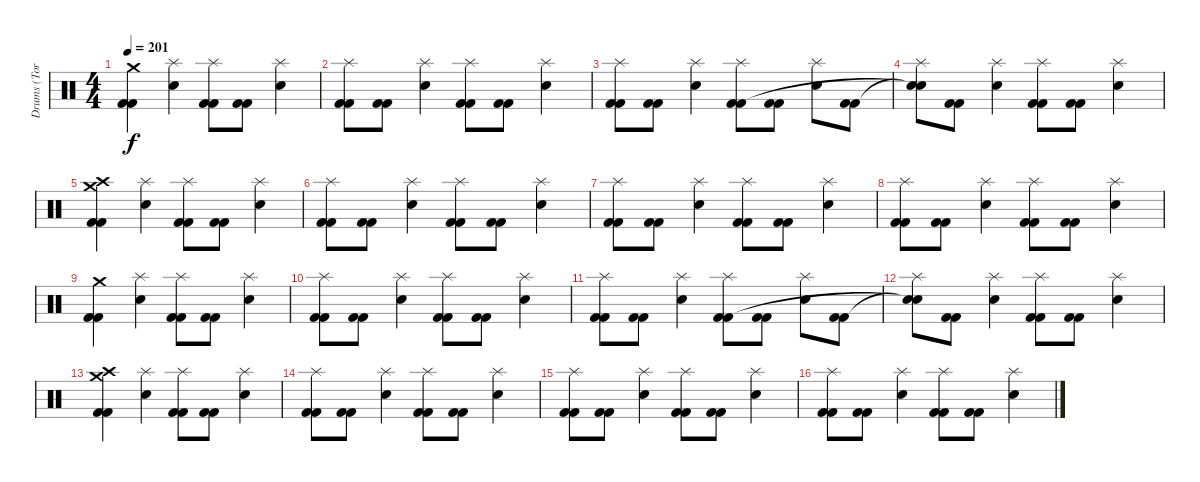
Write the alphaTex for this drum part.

\track ("Drums (Tora)" "Drums (Tor") {instrument percussion}
\staff {score}
\articulation defaults
\ts (4 4)
\tempo 201
\clef neutral
\ks c
("Crash medium (hit)" "Kick (hit) 2" "Kick (hit) 2").4{dy f} ("Splash (hit)" "Snare (hit) 2").4 ("Splash (hit)" "Kick (hit) 2" "Kick (hit) 2").8 ("Kick (hit) 2" "Kick (hit) 2").8 ("Splash (hit)" "Snare (hit) 2").4 |
("Splash (hit)" "Kick (hit) 2" "Kick (hit) 2").8 ("Kick (hit) 2" "Kick (hit) 2").8 ("Splash (hit)" "Snare (hit) 2").4 ("Splash (hit)" "Kick (hit) 2" "Kick (hit) 2").8 ("Kick (hit) 2" "Kick (hit) 2").8 ("Splash (hit)" "Snare (hit) 2").4 |
("Splash (hit)" "Kick (hit) 2" "Kick (hit) 2").8 ("Kick (hit) 2" "Kick (hit) 2").8 ("Splash (hit)" "Snare (hit) 2").4 ("Splash (hit)" "Kick (hit) 2" "Kick (hit) 2").8 ("Kick (hit) 2" "Kick (hit) 2").8 ("Splash (hit)" "Snare (hit) 2").8 ("Kick (hit) 2" "Kick (hit) 2").8 |
("Splash (hit)" "Snare (hit)"{t} "Snare (hit)"{t}).8 ("Kick (hit) 2" "Kick (hit) 2").8 ("Splash (hit)" "Snare (hit) 2").4 ("Splash (hit)" "Kick (hit) 2" "Kick (hit) 2").8 ("Kick (hit) 2" "Kick (hit) 2").8 ("Splash (hit)" "Snare (hit) 2").4 |
("Crash high (hit)" "Crash medium (hit)" "Kick (hit) 2" "Kick (hit) 2").4 ("Splash (hit)" "Snare (hit) 2").4 ("Splash (hit)" "Kick (hit) 2" "Kick (hit) 2").8 ("Kick (hit) 2" "Kick (hit) 2").8 ("Splash (hit)" "Snare (hit) 2").4 |
("Splash (hit)" "Kick (hit) 2" "Kick (hit) 2").8 ("Kick (hit) 2" "Kick (hit) 2").8 ("Splash (hit)" "Snare (hit) 2").4 ("Splash (hit)" "Kick (hit) 2" "Kick (hit) 2").8 ("Kick (hit) 2" "Kick (hit) 2").8 ("Splash (hit)" "Snare (hit) 2").4 |
("Splash (hit)" "Kick (hit) 2" "Kick (hit) 2").8 ("Kick (hit) 2" "Kick (hit) 2").8 ("Splash (hit)" "Snare (hit) 2").4 ("Splash (hit)" "Kick (hit) 2" "Kick (hit) 2").8 ("Kick (hit) 2" "Kick (hit) 2").8 ("Splash (hit)" "Snare (hit) 2").4 |
("Splash (hit)" "Kick (hit) 2" "Kick (hit) 2").8 ("Kick (hit) 2" "Kick (hit) 2").8 ("Splash (hit)" "Snare (hit) 2").4 ("Splash (hit)" "Kick (hit) 2" "Kick (hit) 2").8 ("Kick (hit) 2" "Kick (hit) 2").8 ("Splash (hit)" "Snare (hit) 2").4 |
("Crash medium (hit)" "Kick (hit) 2" "Kick (hit) 2").4 ("Splash (hit)" "Snare (hit) 2").4 ("Splash (hit)" "Kick (hit) 2" "Kick (hit) 2").8 ("Kick (hit) 2" "Kick (hit) 2").8 ("Splash (hit)" "Snare (hit) 2").4 |
("Splash (hit)" "Kick (hit) 2" "Kick (hit) 2").8 ("Kick (hit) 2" "Kick (hit) 2").8 ("Splash (hit)" "Snare (hit) 2").4 ("Splash (hit)" "Kick (hit) 2" "Kick (hit) 2").8 ("Kick (hit) 2" "Kick (hit) 2").8 ("Splash (hit)" "Snare (hit) 2").4 |
("Splash (hit)" "Kick (hit) 2" "Kick (hit) 2").8 ("Kick (hit) 2" "Kick (hit) 2").8 ("Splash (hit)" "Snare (hit) 2").4 ("Splash (hit)" "Kick (hit) 2" "Kick (hit) 2").8 ("Kick (hit) 2" "Kick (hit) 2").8 ("Splash (hit)" "Snare (hit) 2").8 ("Kick (hit) 2" "Kick (hit) 2").8 |
("Splash (hit)" "Snare (hit)"{t} "Snare (hit)"{t}).8 ("Kick (hit) 2" "Kick (hit) 2").8 ("Splash (hit)" "Snare (hit) 2").4 ("Splash (hit)" "Kick (hit) 2" "Kick (hit) 2").8 ("Kick (hit) 2" "Kick (hit) 2").8 ("Splash (hit)" "Snare (hit) 2").4 |
("Crash high (hit)" "Crash medium (hit)" "Kick (hit) 2" "Kick (hit) 2").4 ("Splash (hit)" "Snare (hit) 2").4 ("Splash (hit)" "Kick (hit) 2" "Kick (hit) 2").8 ("Kick (hit) 2" "Kick (hit) 2").8 ("Splash (hit)" "Snare (hit) 2").4 |
("Splash (hit)" "Kick (hit) 2" "Kick (hit) 2").8 ("Kick (hit) 2" "Kick (hit) 2").8 ("Splash (hit)" "Snare (hit) 2").4 ("Splash (hit)" "Kick (hit) 2" "Kick (hit) 2").8 ("Kick (hit) 2" "Kick (hit) 2").8 ("Splash (hit)" "Snare (hit) 2").4 |
("Splash (hit)" "Kick (hit) 2" "Kick (hit) 2").8 ("Kick (hit) 2" "Kick (hit) 2").8 ("Splash (hit)" "Snare (hit) 2").4 ("Splash (hit)" "Kick (hit) 2" "Kick (hit) 2").8 ("Kick (hit) 2" "Kick (hit) 2").8 ("Splash (hit)" "Snare (hit) 2").4 |
("Splash (hit)" "Kick (hit) 2" "Kick (hit) 2").8 ("Kick (hit) 2" "Kick (hit) 2").8 ("Splash (hit)" "Snare (hit) 2").4 ("Splash (hit)" "Kick (hit) 2" "Kick (hit) 2").8 ("Kick (hit) 2" "Kick (hit) 2").8 ("Splash (hit)" "Snare (hit) 2").4
